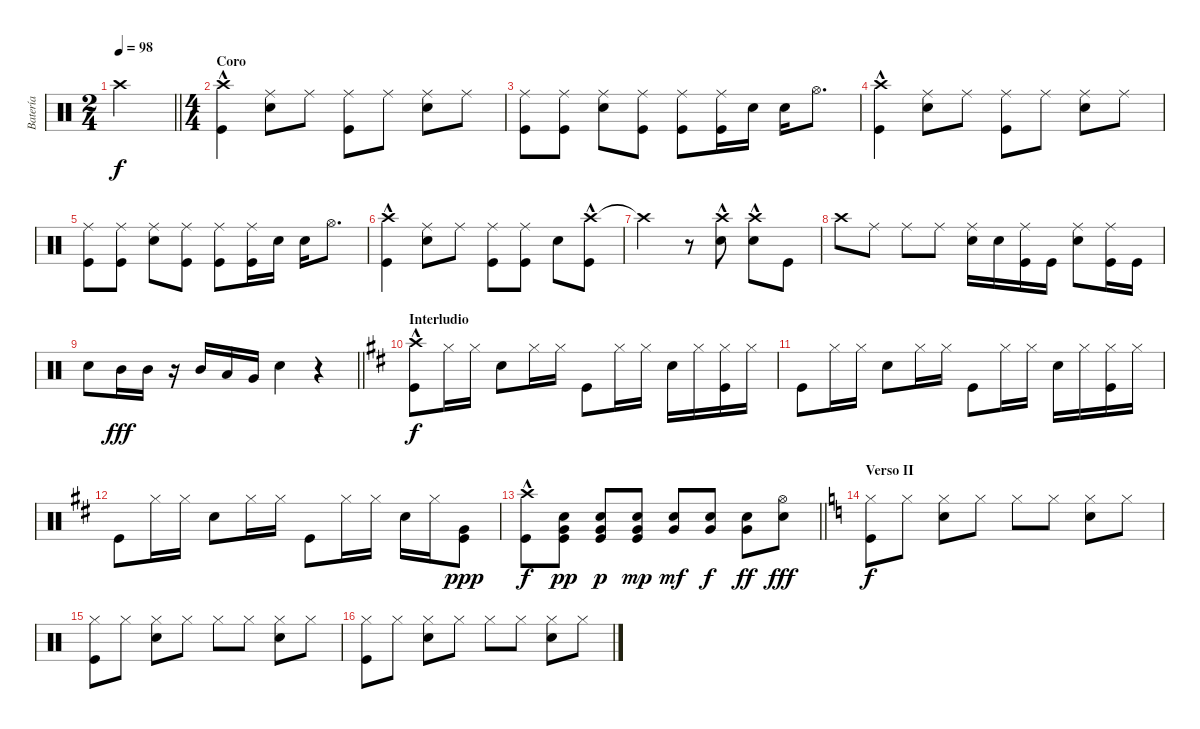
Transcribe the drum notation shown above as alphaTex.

\track ("Batería" "Batería") {instrument percussion}
\staff {score}
\articulation defaults
\ts (2 4)
\tempo 98
\clef neutral
\barLineRight lightlight
\ks aminor "Crash high (hit)"{t}.2{dy f}
|
\ts (4 4)
\section ("" "Coro")
("Kick (hit)" "Crash high (hit)"{hac}).4 ("Ride (middle)" "Snare (hit) 2").8 "Ride (middle)".8 ("Ride (middle)" "Kick (hit)").8 "Ride (middle)".8 ("Ride (middle)" "Snare (hit) 2").8 "Ride (middle)".8 |
("Ride (middle)" "Kick (hit)").8 ("Ride (middle)" "Kick (hit)").8 ("Ride (middle)" "Snare (hit) 2").8 ("Ride (middle)" "Kick (hit)").8 ("Ride (middle)" "Kick (hit)").8 ("Ride (middle)" "Kick (hit)").16 "Snare (hit) 2".16 "Snare (hit) 2".16 "Hi-Hat (open)".8{d} |
("Kick (hit)" "Crash high (hit)"{hac}).4 ("Ride (middle)" "Snare (hit) 2").8 "Ride (middle)".8 ("Ride (middle)" "Kick (hit)").8 "Ride (middle)".8 ("Ride (middle)" "Snare (hit) 2").8 "Ride (middle)".8 |
("Ride (middle)" "Kick (hit)").8 ("Ride (middle)" "Kick (hit)").8 ("Ride (middle)" "Snare (hit) 2").8 ("Ride (middle)" "Kick (hit)").8 ("Ride (middle)" "Kick (hit)").8 ("Ride (middle)" "Kick (hit)").16 "Snare (hit) 2".16 "Snare (hit) 2".16 "Hi-Hat (open)".8{d} |
("Crash high (hit)"{hac} "Kick (hit)").4 ("Ride (middle)" "Snare (hit) 2").8 "Ride (middle)".8 ("Ride (middle)" "Kick (hit)").8 ("Ride (middle)" "Kick (hit)").8 "Snare (hit) 2".8 ("Crash high (hit)"{hac} "Kick (hit)").8 |
"Crash high (hit)"{t}.2 r.8 ("Crash high (hit)"{hac} "Snare (hit) 2").8 ("Crash high (hit)"{hac} "Snare (hit) 2").8 "Kick (hit)".8 |
"Crash high (hit)".8 "Ride (middle)".8 "Ride (middle)".8 "Ride (middle)".8 ("Ride (middle)" "Snare (hit) 2").16 "Snare (hit) 2".16 ("Kick (hit)" "Ride (middle)").16 "Kick (hit)".16 ("Ride (middle)" "Snare (hit) 2").8 ("Ride (middle)" "Kick (hit)").16 "Kick (hit)".16 |
\barLineRight lightlight "Snare (hit) 2".8 "Mid Tom (hit)".16{dy fff} "Mid Tom (hit)".16
r.16 "Mid Tom (hit)".16 "Low Tom (hit)".16 "Very Low Tom (hit)".16 "Snare (hit) 2".4 r.4 |
\section ("" "Interludio")
\ks bminor
("Kick (hit)" "Crash high (hit)"{hac}).8{dy f} "Hi-Hat (closed)".16 "Hi-Hat (closed)".16 "Snare (hit) 2".8 "Hi-Hat (closed)".16 "Hi-Hat (closed)".16 "Kick (hit)".8 "Hi-Hat (closed)".16 "Hi-Hat (closed)".16 "Snare (hit) 2".16 "Hi-Hat (closed)".16 ("Hi-Hat (closed)" "Kick (hit)").16 "Hi-Hat (closed)".16 |
"Kick (hit)".8 "Hi-Hat (closed)".16 "Hi-Hat (closed)".16 "Snare (hit) 2".8 "Hi-Hat (closed)".16 "Hi-Hat (closed)".16 "Kick (hit)".8 "Hi-Hat (closed)".16 "Hi-Hat (closed)".16 "Snare (hit) 2".16 "Hi-Hat (closed)".16 ("Hi-Hat (closed)" "Kick (hit)").16 "Hi-Hat (closed)".16 |
"Kick (hit)".8 "Hi-Hat (closed)".16 "Hi-Hat (closed)".16 "Snare (hit) 2".8 "Hi-Hat (closed)".16 "Hi-Hat (closed)".16 "Kick (hit)".8 "Hi-Hat (closed)".16 "Hi-Hat (closed)".16 "Snare (hit) 2".16 "Hi-Hat (closed)".16 ("Very Low Tom (hit)" "Kick (hit)").8{dy ppp} |
\barLineRight lightlight
("Crash high (hit)"{hac} "Kick (hit)").8{dy f} ("Very Low Tom (hit)" "Kick (hit)" "Snare (hit) 2").8{dy pp} ("Snare (hit) 2" "Kick (hit)" "Very Low Tom (hit)").8{dy p} ("Kick (hit)" "Snare (hit) 2" "Very Low Tom (hit)").8{dy mp} ("Very Low Tom (hit)" "Snare (hit) 2").8{dy mf} ("Snare (hit) 2" "Very Low Tom (hit)").8{dy f} ("Snare (hit) 2" "Very Low Tom (hit)").8{dy ff} ("Snare (hit) 2" "Hi-Hat (open)").8{dy fff} |
\section ("" "Verso II")
\ks aminor
("Hi-Hat (closed)" "Kick (hit)").8{dy f} "Hi-Hat (closed)".8 ("Hi-Hat (closed)" "Snare (hit) 2").8 "Hi-Hat (closed)".8 "Hi-Hat (closed)".8 "Hi-Hat (closed)".8 ("Hi-Hat (closed)" "Snare (hit) 2").8 "Hi-Hat (closed)".8 |
("Hi-Hat (closed)" "Kick (hit)").8 "Hi-Hat (closed)".8 ("Hi-Hat (closed)" "Snare (hit) 2").8 "Hi-Hat (closed)".8 "Hi-Hat (closed)".8 "Hi-Hat (closed)".8 ("Hi-Hat (closed)" "Snare (hit) 2").8 "Hi-Hat (closed)".8 |
("Hi-Hat (closed)" "Kick (hit)").8 "Hi-Hat (closed)".8 ("Hi-Hat (closed)" "Snare (hit) 2").8 "Hi-Hat (closed)".8 "Hi-Hat (closed)".8 "Hi-Hat (closed)".8 ("Hi-Hat (closed)" "Snare (hit) 2").8 "Hi-Hat (closed)".8
